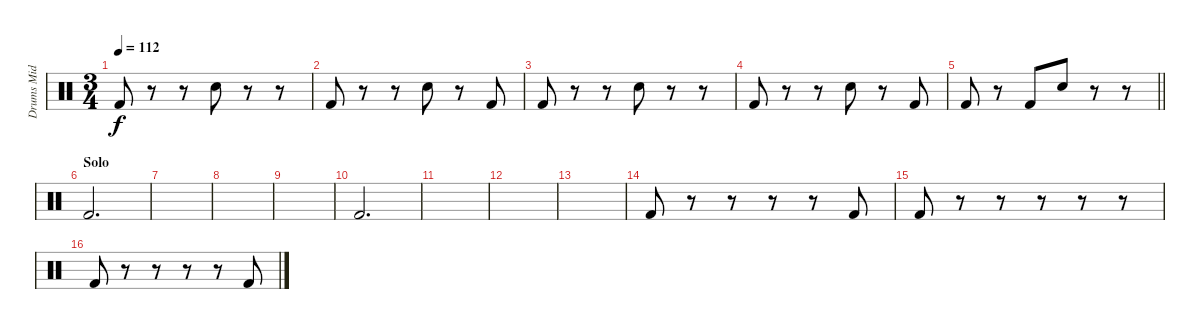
\track ("Drums Mid" "Drums Mid") {instrument percussion}
\staff {score}
\articulation defaults
\ts (3 4)
\tempo 112
\clef neutral
\ks c "Kick (hit) 2".8{dy f}
r.8 r.8 "Snare (hit) 2".8 r.8 r.8 |
"Kick (hit) 2".8 r.8 r.8 "Snare (hit) 2".8 r.8 "Kick (hit) 2".8 |
"Kick (hit) 2".8 r.8 r.8 "Snare (hit) 2".8 r.8 r.8 |
"Kick (hit) 2".8 r.8 r.8 "Snare (hit) 2".8 r.8 "Kick (hit) 2".8 |
\barLineRight lightlight "Kick (hit) 2".8
r.8 "Kick (hit) 2".8 "Snare (hit) 2".8 r.8 r.8 |
\section ("" "Solo")
"Kick (hit) 2".2{d} |
|
|
|
"Kick (hit) 2".2{d} |
|
|
|
"Kick (hit) 2".8 r.8 r.8 r.8 r.8 "Kick (hit) 2".8 |
"Kick (hit) 2".8 r.8 r.8 r.8 r.8 r.8 |
"Kick (hit) 2".8 r.8 r.8 r.8 r.8 "Kick (hit) 2".8
